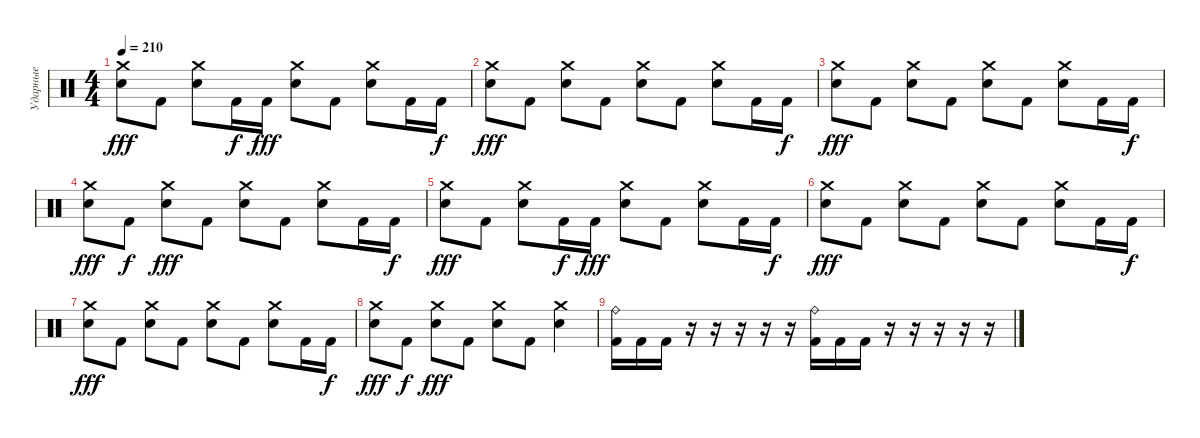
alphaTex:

\track ("Ударные" "Ударные") {instrument percussion}
\staff {score}
\articulation defaults
\ts (4 4)
\tempo 210
\clef neutral
\ks c
("Crash medium (hit)" "Electric Snare (hit)").8{dy fff} "Kick (hit) 2".8 ("Crash medium (hit)" "Electric Snare (hit)").8 "Kick (hit) 2".16{dy f} "Kick (hit) 2".16{dy fff} ("Crash medium (hit)" "Electric Snare (hit)").8 "Kick (hit) 2".8 ("Crash medium (hit)" "Electric Snare (hit)").8 "Kick (hit) 2".16 "Kick (hit) 2".16{dy f} |
("Crash medium (hit)" "Electric Snare (hit)").8{dy fff} "Kick (hit) 2".8 ("Crash medium (hit)" "Electric Snare (hit)").8 "Kick (hit) 2".8 ("Crash medium (hit)" "Electric Snare (hit)").8 "Kick (hit) 2".8 ("Crash medium (hit)" "Electric Snare (hit)").8 "Kick (hit) 2".16 "Kick (hit) 2".16{dy f} |
("Crash medium (hit)" "Electric Snare (hit)").8{dy fff} "Kick (hit) 2".8 ("Crash medium (hit)" "Electric Snare (hit)").8 "Kick (hit) 2".8 ("Crash medium (hit)" "Electric Snare (hit)").8 "Kick (hit) 2".8 ("Crash medium (hit)" "Electric Snare (hit)").8 "Kick (hit) 2".16 "Kick (hit) 2".16{dy f} |
("Crash medium (hit)" "Electric Snare (hit)").8{dy fff} "Kick (hit) 2".8{dy f} ("Crash medium (hit)" "Electric Snare (hit)").8{dy fff} "Kick (hit) 2".8 ("Crash medium (hit)" "Electric Snare (hit)").8 "Kick (hit) 2".8 ("Crash medium (hit)" "Electric Snare (hit)").8 "Kick (hit) 2".16 "Kick (hit) 2".16{dy f} |
("Crash medium (hit)" "Electric Snare (hit)").8{dy fff} "Kick (hit) 2".8 ("Crash medium (hit)" "Electric Snare (hit)").8 "Kick (hit) 2".16{dy f} "Kick (hit) 2".16{dy fff} ("Crash medium (hit)" "Electric Snare (hit)").8 "Kick (hit) 2".8 ("Crash medium (hit)" "Electric Snare (hit)").8 "Kick (hit) 2".16 "Kick (hit) 2".16{dy f} |
("Crash medium (hit)" "Electric Snare (hit)").8{dy fff} "Kick (hit) 2".8 ("Crash medium (hit)" "Electric Snare (hit)").8 "Kick (hit) 2".8 ("Crash medium (hit)" "Electric Snare (hit)").8 "Kick (hit) 2".8 ("Crash medium (hit)" "Electric Snare (hit)").8 "Kick (hit) 2".16 "Kick (hit) 2".16{dy f} |
("Crash medium (hit)" "Electric Snare (hit)").8{dy fff} "Kick (hit) 2".8 ("Crash medium (hit)" "Electric Snare (hit)").8 "Kick (hit) 2".8 ("Crash medium (hit)" "Electric Snare (hit)").8 "Kick (hit) 2".8 ("Crash medium (hit)" "Electric Snare (hit)").8 "Kick (hit) 2".16 "Kick (hit) 2".16{dy f} |
("Crash medium (hit)" "Electric Snare (hit)").8{dy fff} "Kick (hit) 2".8{dy f} ("Crash medium (hit)" "Electric Snare (hit)").8{dy fff} "Kick (hit) 2".8 ("Crash medium (hit)" "Electric Snare (hit)").8 "Kick (hit) 2".8 ("Crash medium (hit)" "Electric Snare (hit)").4 |
("Ride (bell)" "Kick (hit) 2").16 "Kick (hit) 2".16 "Kick (hit) 2".16 r.16 r.16 r.16 r.16 r.16 ("Ride (bell)" "Kick (hit) 2").16 "Kick (hit) 2".16 "Kick (hit) 2".16 r.16 r.16 r.16 r.16 r.16
